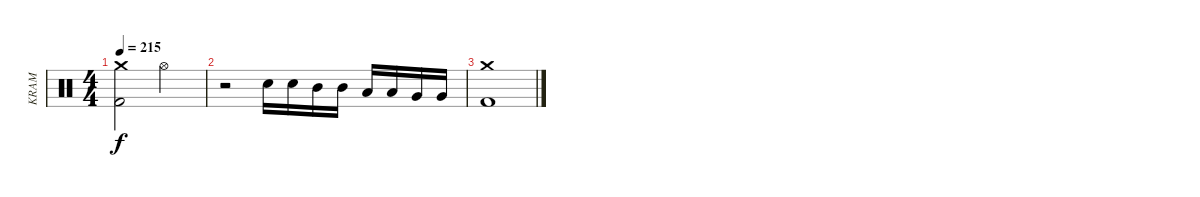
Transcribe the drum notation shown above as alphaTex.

\track ("KRAM" "KRAM") {instrument percussion}
\staff {score}
\articulation defaults
\ts (4 4)
\tempo 215
\clef neutral
\ks c
("Kick (hit) 2" "Crash medium (hit)").2{dy f} "Hi-Hat (open)".2 |
r.2 "Electric Snare (hit)".16 "Electric Snare (hit)".16 "Mid Tom (hit)".16 "Mid Tom (hit)".16 "Low Tom (hit)".16 "Low Tom (hit)".16 "Very Low Tom (hit)".16 "Very Low Tom (hit)".16 |
("Kick (hit) 2" "Crash medium (hit)").1
